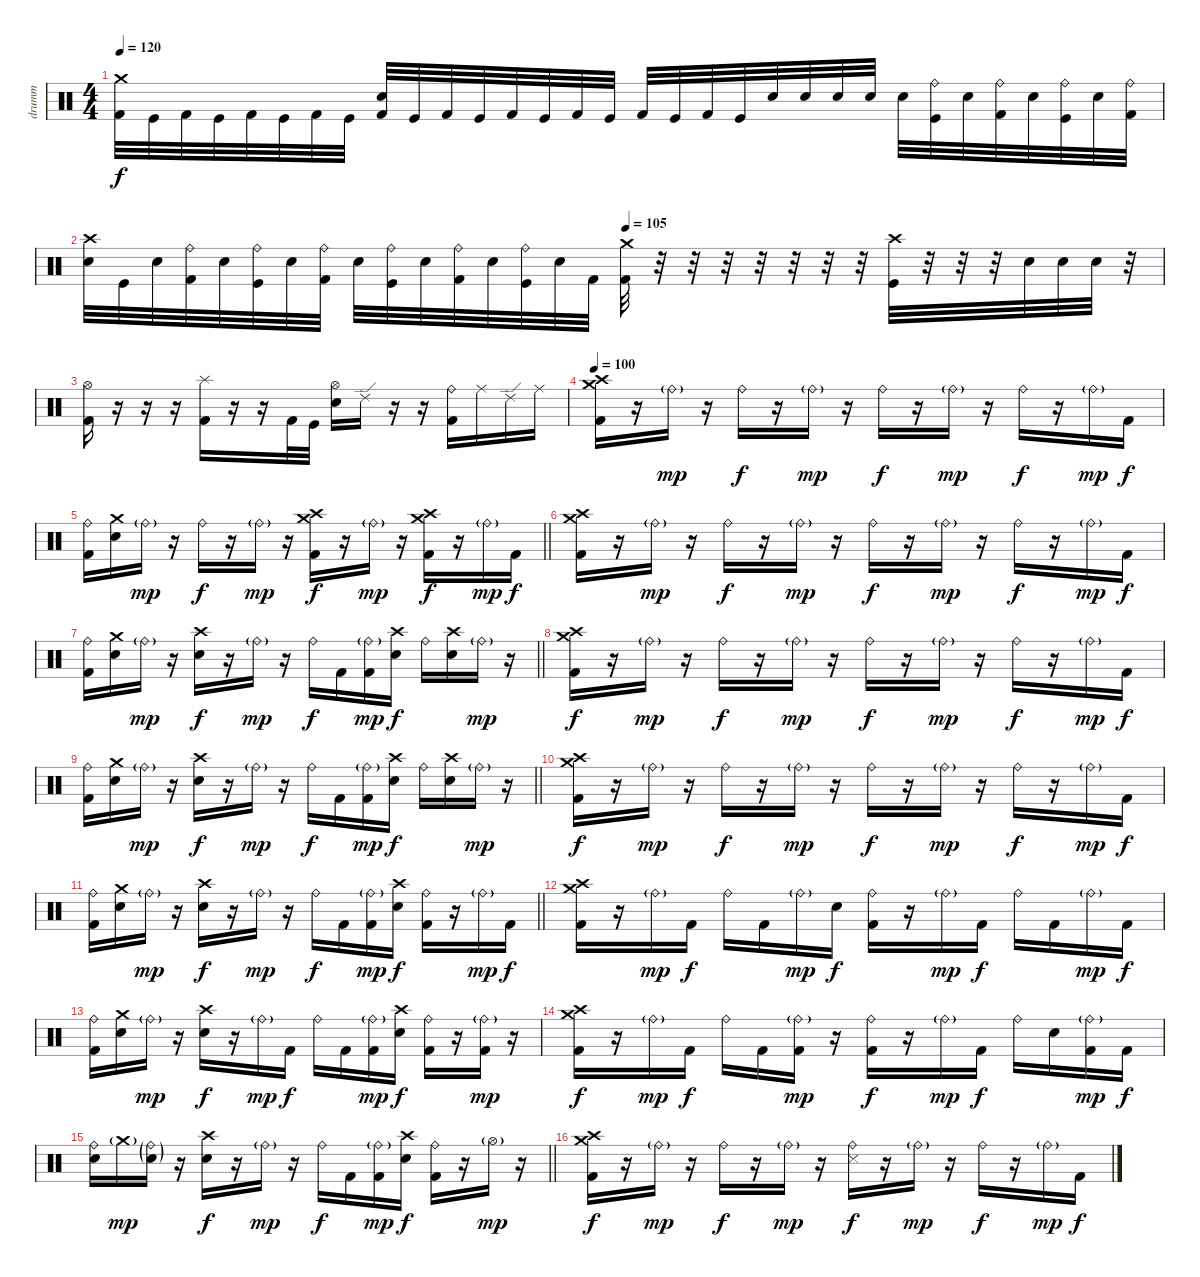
\track ("drumm" "drumm") {instrument percussion}
\staff
\articulation defaults
\ts (4 4)
\tempo 120
\clef neutral
\ks c
("Kick (hit) 2" "Crash medium (hit)").32{dy f} "Kick (hit)".32 "Kick (hit) 2".32 "Kick (hit)".32 "Kick (hit) 2".32 "Kick (hit)".32 "Kick (hit) 2".32 "Kick (hit)".32 ("Kick (hit) 2" "Electric Snare (hit)").32 "Kick (hit)".32 "Kick (hit) 2".32 "Kick (hit)".32 "Kick (hit) 2".32 "Kick (hit)".32 "Kick (hit) 2".32 "Kick (hit)".32 "Kick (hit) 2".32 "Kick (hit)".32 "Kick (hit) 2".32 "Kick (hit)".32 "Electric Snare (hit)".32 "Electric Snare (hit)".32 "Electric Snare (hit)".32 "Electric Snare (hit)".32 "Electric Snare (hit)".32 ("Kick (hit)" "Ride (bell)").32 "Electric Snare (hit)".32 ("Kick (hit) 2" "Ride (bell)").32 "Electric Snare (hit)".32 ("Kick (hit)" "Ride (bell)").32 "Electric Snare (hit)".32 ("Kick (hit) 2" "Ride (bell)").32 |
\tempo (105 0.5)
("Electric Snare (hit)" "Crash high (hit)").32 "Kick (hit)".32 "Electric Snare (hit)".32 ("Kick (hit) 2" "Ride (bell)").32 "Electric Snare (hit)".32 ("Kick (hit)" "Ride (bell)").32 "Electric Snare (hit)".32 ("Kick (hit) 2" "Ride (bell)").32 "Electric Snare (hit)".32 ("Kick (hit)" "Ride (bell)").32 "Electric Snare (hit)".32 ("Kick (hit) 2" "Ride (bell)").32 "Electric Snare (hit)".32 ("Kick (hit)" "Ride (bell)").32 "Electric Snare (hit)".32 "Kick (hit) 2".32 ("Kick (hit) 2" "Crash medium (hit)").32 r.32 r.32 r.32 r.32 r.32 r.32 r.32 ("Kick (hit)" "Crash high (hit)").32 r.32 r.32 r.32 "Electric Snare (hit)".32 "Electric Snare (hit)".32 "Electric Snare (hit)".32 r.32 |
("Kick (hit) 2" "Hi-Hat (open)").16 r.16 r.16 r.16 ("Kick (hit) 2" "Splash (hit)").16 r.16 r.16 "Kick (hit) 2".32 "Kick (hit)".32 ("Electric Snare (hit)" "Hi-Hat (open)").16 "Ride (edge) 2".16 r.16 r.16 ("Kick (hit) 2" "Ride (bell)").16 "Ride (middle)".16 "Ride (edge) 2".16 "Ride (middle)".16 |
\tempo 100
("Kick (hit) 2" "Crash medium (hit)" "Crash high (hit)").16 r.16 "Ride (bell)"{g}.16{dy mp} r.16 "Ride (bell)".16{dy f} r.16 "Ride (bell)"{g}.16{dy mp} r.16 "Ride (bell)".16{dy f} r.16 "Ride (bell)"{g}.16{dy mp} r.16 "Ride (bell)".16{dy f} r.16 "Ride (bell)"{g}.16{dy mp} "Kick (hit) 2".16{dy f} |
\barLineRight lightlight
("Kick (hit) 2" "Ride (bell)").16 ("Electric Snare (hit)" "Crash medium (hit)").16 "Ride (bell)"{g}.16{dy mp} r.16 "Ride (bell)".16{dy f} r.16 "Ride (bell)"{g}.16{dy mp} r.16 ("Kick (hit) 2" "Crash medium (hit)" "Crash high (hit)").16{dy f} r.16 "Ride (bell)"{g}.16{dy mp} r.16 ("Crash medium (hit)" "Crash high (hit)" "Kick (hit) 2").16{dy f} r.16 "Ride (bell)"{g}.16{dy mp} "Kick (hit) 2".16{dy f} |
("Kick (hit) 2" "Crash medium (hit)" "Crash high (hit)").16 r.16 "Ride (bell)"{g}.16{dy mp} r.16 "Ride (bell)".16{dy f} r.16 "Ride (bell)"{g}.16{dy mp} r.16 "Ride (bell)".16{dy f} r.16 "Ride (bell)"{g}.16{dy mp} r.16 "Ride (bell)".16{dy f} r.16 "Ride (bell)"{g}.16{dy mp} "Kick (hit) 2".16{dy f} |
\barLineRight lightlight
("Kick (hit) 2" "Ride (bell)").16 ("Electric Snare (hit)" "Crash medium (hit)").16 "Ride (bell)"{g}.16{dy mp} r.16 ("Electric Snare (hit)" "Crash high (hit)").16{dy f} r.16 "Ride (bell)"{g}.16{dy mp} r.16 "Ride (bell)".16{dy f} "Kick (hit) 2".16 ("Kick (hit) 2" "Ride (bell)"{g}).16{dy mp} ("Electric Snare (hit)" "Crash high (hit)").16{dy f} "Ride (bell)".16 ("Electric Snare (hit)" "Crash high (hit)").16 "Ride (bell)"{g}.16{dy mp} r.16 |
("Kick (hit) 2" "Crash medium (hit)" "Crash high (hit)").16{dy f} r.16 "Ride (bell)"{g}.16{dy mp} r.16 "Ride (bell)".16{dy f} r.16 "Ride (bell)"{g}.16{dy mp} r.16 "Ride (bell)".16{dy f} r.16 "Ride (bell)"{g}.16{dy mp} r.16 "Ride (bell)".16{dy f} r.16 "Ride (bell)"{g}.16{dy mp} "Kick (hit) 2".16{dy f} |
\barLineRight lightlight
("Kick (hit) 2" "Ride (bell)").16 ("Electric Snare (hit)" "Crash medium (hit)").16 "Ride (bell)"{g}.16{dy mp} r.16 ("Electric Snare (hit)" "Crash high (hit)").16{dy f} r.16 "Ride (bell)"{g}.16{dy mp} r.16 "Ride (bell)".16{dy f} "Kick (hit) 2".16 ("Kick (hit) 2" "Ride (bell)"{g}).16{dy mp} ("Electric Snare (hit)" "Crash high (hit)").16{dy f} "Ride (bell)".16 ("Electric Snare (hit)" "Crash high (hit)").16 "Ride (bell)"{g}.16{dy mp} r.16 |
("Kick (hit) 2" "Crash medium (hit)" "Crash high (hit)").16{dy f} r.16 "Ride (bell)"{g}.16{dy mp} r.16 "Ride (bell)".16{dy f} r.16 "Ride (bell)"{g}.16{dy mp} r.16 "Ride (bell)".16{dy f} r.16 "Ride (bell)"{g}.16{dy mp} r.16 "Ride (bell)".16{dy f} r.16 "Ride (bell)"{g}.16{dy mp} "Kick (hit) 2".16{dy f} |
\barLineRight lightlight
("Kick (hit) 2" "Ride (bell)").16 ("Electric Snare (hit)" "Crash medium (hit)").16 "Ride (bell)"{g}.16{dy mp} r.16 ("Electric Snare (hit)" "Crash high (hit)").16{dy f} r.16 "Ride (bell)"{g}.16{dy mp} r.16 "Ride (bell)".16{dy f} "Kick (hit) 2".16 ("Kick (hit) 2" "Ride (bell)"{g}).16{dy mp} ("Electric Snare (hit)" "Crash high (hit)").16{dy f} ("Kick (hit) 2" "Ride (bell)").16 r.16 "Ride (bell)"{g}.16{dy mp} "Kick (hit) 2".16{dy f} |
("Kick (hit) 2" "Crash medium (hit)" "Crash high (hit)").16 r.16 "Ride (bell)"{g}.16{dy mp} "Kick (hit) 2".16{dy f} "Ride (bell)".16 "Kick (hit) 2".16 "Ride (bell)"{g}.16{dy mp} "Electric Snare (hit)".16{dy f} ("Kick (hit) 2" "Ride (bell)").16 r.16 "Ride (bell)"{g}.16{dy mp} "Kick (hit) 2".16{dy f} "Ride (bell)".16 "Kick (hit) 2".16 "Ride (bell)"{g}.16{dy mp} "Kick (hit) 2".16{dy f} |
("Kick (hit) 2" "Ride (bell)").16 ("Electric Snare (hit)" "Crash medium (hit)").16 "Ride (bell)"{g}.16{dy mp} r.16 ("Electric Snare (hit)" "Crash high (hit)").16{dy f} r.16 "Ride (bell)"{g}.16{dy mp} "Kick (hit) 2".16{dy f} "Ride (bell)".16 "Kick (hit) 2".16 ("Kick (hit) 2" "Ride (bell)"{g}).16{dy mp} ("Electric Snare (hit)" "Crash high (hit)").16{dy f} ("Kick (hit) 2" "Ride (bell)").16 r.16 ("Kick (hit) 2" "Ride (bell)"{g}).16{dy mp} r.16 |
("Kick (hit) 2" "Crash medium (hit)" "Crash high (hit)").16{dy f} r.16 "Ride (bell)"{g}.16{dy mp} "Kick (hit) 2".16{dy f} "Ride (bell)".16 "Kick (hit) 2".16 ("Kick (hit) 2" "Ride (bell)"{g}).16{dy mp} r.16 ("Kick (hit) 2" "Ride (bell)").16{dy f} r.16 "Ride (bell)"{g}.16{dy mp} "Kick (hit) 2".16{dy f} "Ride (bell)".16 "Electric Snare (hit)".16 ("Kick (hit) 2" "Ride (bell)"{g}).16{dy mp} "Kick (hit) 2".16{dy f} |
\barLineRight lightlight
("Electric Snare (hit)" "Ride (bell)").16 "Crash medium (hit)"{g}.16{dy mp} ("Electric Snare (hit)"{g} "Ride (bell)"{g}).16 r.16 ("Electric Snare (hit)" "Crash high (hit)").16{dy f} r.16 "Ride (bell)"{g}.16{dy mp} r.16 "Ride (bell)".16{dy f} "Kick (hit) 2".16 ("Kick (hit) 2" "Ride (bell)"{g}).16{dy mp} ("Electric Snare (hit)" "Crash high (hit)").16{dy f} ("Kick (hit) 2" "Ride (bell)").16 r.16 "Hi-Hat (open)"{g}.16{dy mp} r.16 |
("Kick (hit) 2" "Crash medium (hit)" "Crash high (hit)").16{dy f} r.16 "Ride (bell)"{g}.16{dy mp} r.16 "Ride (bell)".16{dy f} r.16 "Ride (bell)"{g}.16{dy mp} r.16 ("Snare (side stick) 3" "Ride (bell)").16{dy f} r.16 "Ride (bell)"{g}.16{dy mp} r.16 "Ride (bell)".16{dy f} r.16 "Ride (bell)"{g}.16{dy mp} "Kick (hit) 2".16{dy f}
